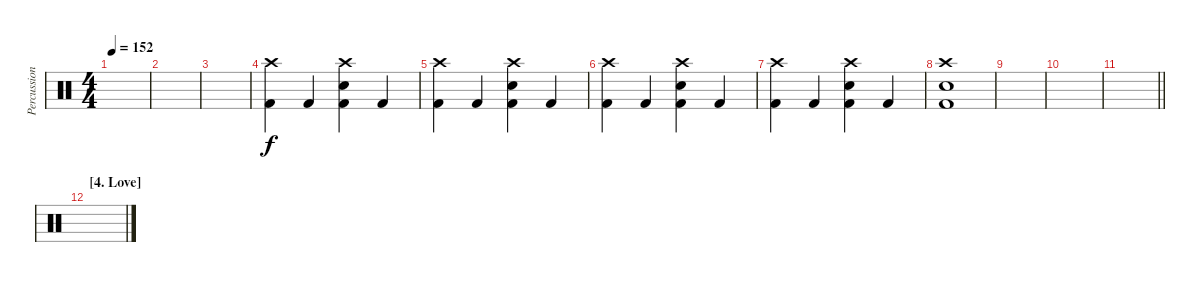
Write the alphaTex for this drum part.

\track ("Percussion" "Percussion") {instrument percussion}
\staff {score}
\articulation defaults
\ts (4 4)
\tempo 152
\clef neutral
\ks c
|
|
|
("Crash high (hit)" "Kick (hit) 2").4 "Kick (hit) 2".4 ("Crash high (hit)" "Electric Snare (hit)" "Kick (hit) 2").4 "Kick (hit) 2".4 |
("Crash high (hit)" "Kick (hit) 2").4 "Kick (hit) 2".4 ("Crash high (hit)" "Electric Snare (hit)" "Kick (hit) 2").4 "Kick (hit) 2".4 |
("Crash high (hit)" "Kick (hit) 2").4 "Kick (hit) 2".4 ("Crash high (hit)" "Electric Snare (hit)" "Kick (hit) 2").4 "Kick (hit) 2".4 |
("Crash high (hit)" "Kick (hit) 2").4 "Kick (hit) 2".4 ("Crash high (hit)" "Electric Snare (hit)" "Kick (hit) 2").4 "Kick (hit) 2".4 |
("Crash high (hit)" "Electric Snare (hit)" "Kick (hit) 2").1 |
|
|
\barLineRight lightlight
|
\section ("" "[4. Love]")
